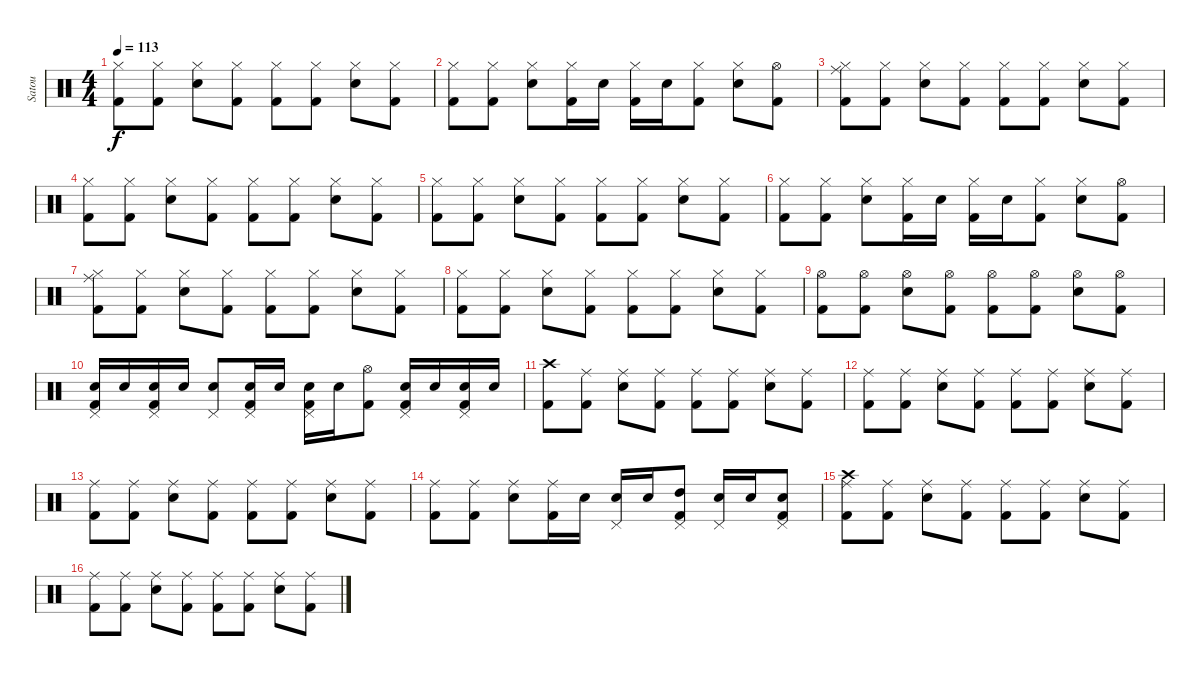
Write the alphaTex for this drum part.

\track ("Satou" "Satou") {instrument percussion}
\staff {score}
\articulation defaults
\ts (4 4)
\tempo 113
\clef neutral
\ks c
("Hi-Hat (closed)" "Kick (hit) 2").8{dy f} ("Hi-Hat (closed)" "Kick (hit) 2").8 ("Hi-Hat (closed)" "Electric Snare (hit)").8 ("Hi-Hat (closed)" "Kick (hit) 2").8 ("Hi-Hat (closed)" "Kick (hit) 2").8 ("Hi-Hat (closed)" "Kick (hit) 2").8 ("Hi-Hat (closed)" "Electric Snare (hit)").8 ("Hi-Hat (closed)" "Kick (hit) 2").8 |
("Hi-Hat (closed)" "Kick (hit) 2").8 ("Hi-Hat (closed)" "Kick (hit) 2").8 ("Hi-Hat (closed)" "Electric Snare (hit)").8 ("Hi-Hat (closed)" "Kick (hit) 2").16 "Electric Snare (hit)".16 ("Hi-Hat (closed)" "Kick (hit) 2").16 "Electric Snare (hit)".16 ("Hi-Hat (closed)" "Kick (hit) 2").8 ("Hi-Hat (closed)" "Electric Snare (hit)").8 ("Hi-Hat (open)" "Kick (hit) 2").8 |
("Ride (middle)" "Hi-Hat (closed)" "Kick (hit) 2").8 ("Hi-Hat (closed)" "Kick (hit) 2").8 ("Hi-Hat (closed)" "Electric Snare (hit)").8 ("Hi-Hat (closed)" "Kick (hit) 2").8 ("Hi-Hat (closed)" "Kick (hit) 2").8 ("Hi-Hat (closed)" "Kick (hit) 2").8 ("Hi-Hat (closed)" "Electric Snare (hit)").8 ("Hi-Hat (closed)" "Kick (hit) 2").8 |
("Hi-Hat (closed)" "Kick (hit) 2").8 ("Hi-Hat (closed)" "Kick (hit) 2").8 ("Hi-Hat (closed)" "Electric Snare (hit)").8 ("Hi-Hat (closed)" "Kick (hit) 2").8 ("Hi-Hat (closed)" "Kick (hit) 2").8 ("Hi-Hat (closed)" "Kick (hit) 2").8 ("Hi-Hat (closed)" "Electric Snare (hit)").8 ("Hi-Hat (closed)" "Kick (hit) 2").8 |
("Hi-Hat (closed)" "Kick (hit) 2").8 ("Hi-Hat (closed)" "Kick (hit) 2").8 ("Hi-Hat (closed)" "Electric Snare (hit)").8 ("Hi-Hat (closed)" "Kick (hit) 2").8 ("Hi-Hat (closed)" "Kick (hit) 2").8 ("Hi-Hat (closed)" "Kick (hit) 2").8 ("Hi-Hat (closed)" "Electric Snare (hit)").8 ("Hi-Hat (closed)" "Kick (hit) 2").8 |
("Hi-Hat (closed)" "Kick (hit) 2").8 ("Hi-Hat (closed)" "Kick (hit) 2").8 ("Hi-Hat (closed)" "Electric Snare (hit)").8 ("Hi-Hat (closed)" "Kick (hit) 2").16 "Electric Snare (hit)".16 ("Hi-Hat (closed)" "Kick (hit) 2").16 "Electric Snare (hit)".16 ("Hi-Hat (closed)" "Kick (hit) 2").8 ("Hi-Hat (closed)" "Electric Snare (hit)").8 ("Hi-Hat (open)" "Kick (hit) 2").8 |
("Ride (middle)" "Hi-Hat (closed)" "Kick (hit) 2").8 ("Hi-Hat (closed)" "Kick (hit) 2").8 ("Hi-Hat (closed)" "Electric Snare (hit)").8 ("Hi-Hat (closed)" "Kick (hit) 2").8 ("Hi-Hat (closed)" "Kick (hit) 2").8 ("Hi-Hat (closed)" "Kick (hit) 2").8 ("Hi-Hat (closed)" "Electric Snare (hit)").8 ("Hi-Hat (closed)" "Kick (hit) 2").8 |
("Hi-Hat (closed)" "Kick (hit) 2").8 ("Hi-Hat (closed)" "Kick (hit) 2").8 ("Hi-Hat (closed)" "Electric Snare (hit)").8 ("Hi-Hat (closed)" "Kick (hit) 2").8 ("Hi-Hat (closed)" "Kick (hit) 2").8 ("Hi-Hat (closed)" "Kick (hit) 2").8 ("Hi-Hat (closed)" "Electric Snare (hit)").8 ("Hi-Hat (closed)" "Kick (hit) 2").8 |
("Hi-Hat (open)" "Kick (hit) 2").8 ("Hi-Hat (open)" "Kick (hit) 2").8 ("Hi-Hat (open)" "Electric Snare (hit)").8 ("Hi-Hat (open)" "Kick (hit) 2").8 ("Hi-Hat (open)" "Kick (hit) 2").8 ("Hi-Hat (open)" "Kick (hit) 2").8 ("Hi-Hat (open)" "Electric Snare (hit)").8 ("Hi-Hat (open)" "Kick (hit) 2").8 |
("Pedal Hi-Hat (hit)" "Electric Snare (hit)" "Kick (hit) 2").16 "Electric Snare (hit)".16 ("Pedal Hi-Hat (hit)" "Electric Snare (hit)" "Kick (hit) 2").16 "Electric Snare (hit)".16 ("Pedal Hi-Hat (hit)" "Electric Snare (hit)").8 ("Pedal Hi-Hat (hit)" "Electric Snare (hit)" "Kick (hit) 2").16 "Electric Snare (hit)".16 ("Pedal Hi-Hat (hit)" "Electric Snare (hit)" "Kick (hit) 2").16 "Electric Snare (hit)".16 ("Hi-Hat (open)" "Kick (hit) 2").8 ("Pedal Hi-Hat (hit)" "Electric Snare (hit)" "Kick (hit) 2").16 "Electric Snare (hit)".16 ("Pedal Hi-Hat (hit)" "Electric Snare (hit)" "Kick (hit) 2").16 "Electric Snare (hit)".16 |
("Crash high (hit)" "Kick (hit) 2").8 ("Ride (middle)" "Kick (hit) 2").8 ("Ride (middle)" "Electric Snare (hit)").8 ("Ride (middle)" "Kick (hit) 2").8 ("Ride (middle)" "Kick (hit) 2").8 ("Ride (middle)" "Kick (hit) 2").8 ("Ride (middle)" "Electric Snare (hit)").8 ("Ride (middle)" "Kick (hit) 2").8 |
("Ride (middle)" "Kick (hit) 2").8 ("Ride (middle)" "Kick (hit) 2").8 ("Ride (middle)" "Electric Snare (hit)").8 ("Ride (middle)" "Kick (hit) 2").8 ("Ride (middle)" "Kick (hit) 2").8 ("Ride (middle)" "Kick (hit) 2").8 ("Ride (middle)" "Electric Snare (hit)").8 ("Ride (middle)" "Kick (hit) 2").8 |
("Ride (middle)" "Kick (hit) 2").8 ("Ride (middle)" "Kick (hit) 2").8 ("Ride (middle)" "Electric Snare (hit)").8 ("Ride (middle)" "Kick (hit) 2").8 ("Ride (middle)" "Kick (hit) 2").8 ("Ride (middle)" "Kick (hit) 2").8 ("Ride (middle)" "Electric Snare (hit)").8 ("Ride (middle)" "Kick (hit) 2").8 |
("Ride (middle)" "Kick (hit) 2").8 ("Ride (middle)" "Kick (hit) 2").8 ("Ride (middle)" "Electric Snare (hit)").8 ("Ride (middle)" "Kick (hit) 2").16 "Electric Snare (hit)".16 ("Pedal Hi-Hat (hit)" "Electric Snare (hit)").16 "Electric Snare (hit)".16 ("Pedal Hi-Hat (hit)" "High Tom (hit)" "Kick (hit) 2").8 ("Pedal Hi-Hat (hit)" "Electric Snare (hit)").16 "Electric Snare (hit)".16 ("Pedal Hi-Hat (hit)" "Electric Snare (hit)" "Kick (hit) 2").8 |
("Crash high (hit)" "Ride (middle)" "Kick (hit) 2").8 ("Ride (middle)" "Kick (hit) 2").8 ("Ride (middle)" "Electric Snare (hit)").8 ("Ride (middle)" "Kick (hit) 2").8 ("Ride (middle)" "Kick (hit) 2").8 ("Ride (middle)" "Kick (hit) 2").8 ("Ride (middle)" "Electric Snare (hit)").8 ("Ride (middle)" "Kick (hit) 2").8 |
("Ride (middle)" "Kick (hit) 2").8 ("Ride (middle)" "Kick (hit) 2").8 ("Ride (middle)" "Electric Snare (hit)").8 ("Ride (middle)" "Kick (hit) 2").8 ("Ride (middle)" "Kick (hit) 2").8 ("Ride (middle)" "Kick (hit) 2").8 ("Ride (middle)" "Electric Snare (hit)").8 ("Ride (middle)" "Kick (hit) 2").8
